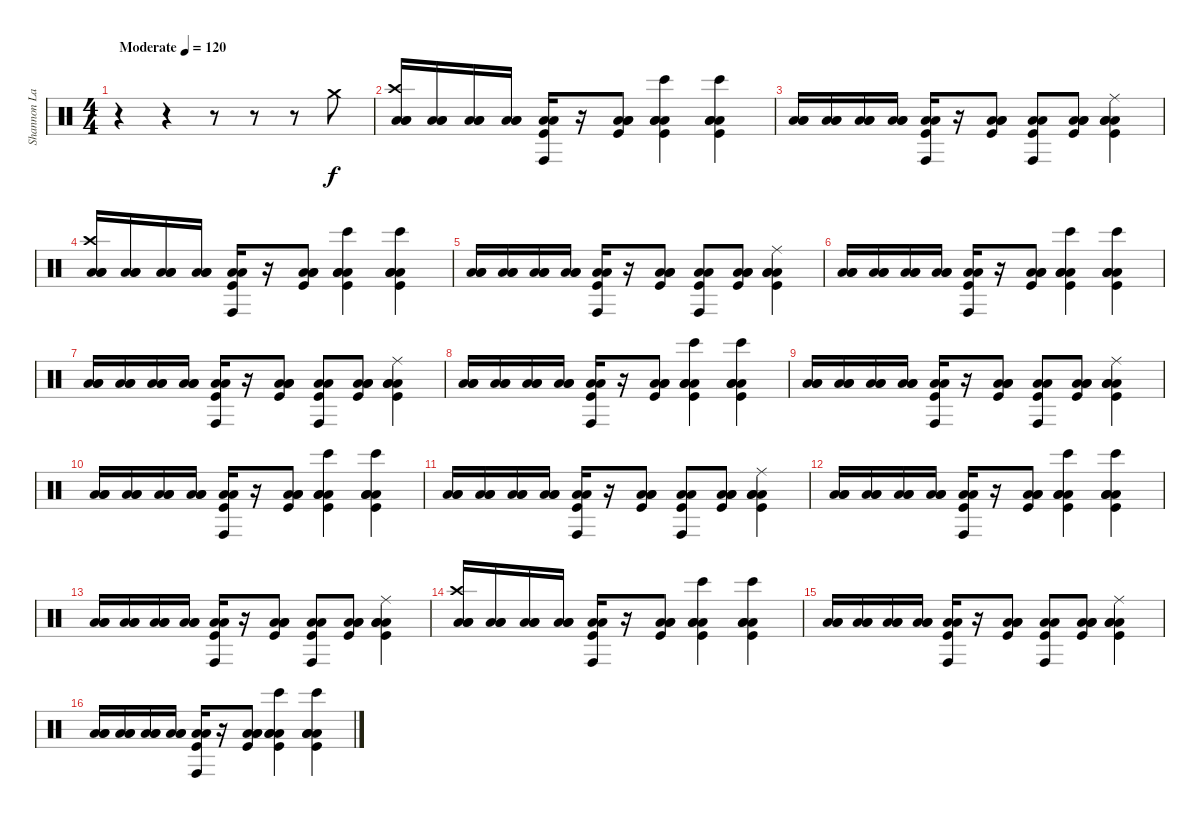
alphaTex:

\track ("Shannon Larkin" "Shannon La") {instrument percussion}
\staff {score}
\articulation defaults
\ts (4 4)
\tempo (120 "Moderate")
\clef neutral
\ks c
r.4{dy f} r.4 r.8 r.8 r.8 "Crash medium (hit)".8 |
("Low Floor Tom (hit)" "Low Floor Tom (hit)" "Crash high (hit)" "Low Tom (hit)").16 ("Low Floor Tom (hit)" "Low Floor Tom (hit)" "Low Tom (hit)").16 ("Low Floor Tom (hit)" "Low Floor Tom (hit)" "Low Tom (hit)").16 ("Low Floor Tom (hit)" "Low Floor Tom (hit)" "Low Tom (hit)").16 ("Low Floor Tom (hit)" "Low Floor Tom (hit)" "Conga high (hit)" "Kick (hit)").16 r.16 ("Low Floor Tom (hit)" "Low Floor Tom (hit)" "Low Tom (hit)" "Kick (hit)").8 ("Low Floor Tom (hit)" "Low Tom (hit)" "Low Floor Tom (hit)" "Bongo High (hit)" "Kick (hit)").4 ("Low Floor Tom (hit)" "Low Tom (hit)" "Low Floor Tom (hit)" "Bongo High (hit)" "Kick (hit)").4 |
("Low Floor Tom (hit)" "Low Floor Tom (hit)" "Low Tom (hit)").16 ("Low Floor Tom (hit)" "Low Floor Tom (hit)" "Low Tom (hit)").16 ("Low Floor Tom (hit)" "Low Floor Tom (hit)" "Low Tom (hit)").16 ("Low Floor Tom (hit)" "Low Floor Tom (hit)" "Low Tom (hit)").16 ("Low Floor Tom (hit)" "Low Floor Tom (hit)" "Conga high (hit)" "Kick (hit)").16 r.16 ("Low Floor Tom (hit)" "Low Floor Tom (hit)" "Low Tom (hit)" "Kick (hit)").8 ("Low Floor Tom (hit)" "Low Floor Tom (hit)" "Conga high (hit)" "Kick (hit)").8 ("Low Floor Tom (hit)" "Low Floor Tom (hit)" "Low Tom (hit)" "Kick (hit)").8 ("Low Floor Tom (hit)" "Low Tom (hit)" "Low Floor Tom (hit)" "Ride (middle)" "Kick (hit)").4 |
("Low Floor Tom (hit)" "Low Floor Tom (hit)" "Crash high (hit)" "Low Tom (hit)").16 ("Low Floor Tom (hit)" "Low Floor Tom (hit)" "Low Tom (hit)").16 ("Low Floor Tom (hit)" "Low Floor Tom (hit)" "Low Tom (hit)").16 ("Low Floor Tom (hit)" "Low Floor Tom (hit)" "Low Tom (hit)").16 ("Low Floor Tom (hit)" "Low Floor Tom (hit)" "Conga high (hit)" "Kick (hit)").16 r.16 ("Low Floor Tom (hit)" "Low Floor Tom (hit)" "Low Tom (hit)" "Kick (hit)").8 ("Low Floor Tom (hit)" "Low Tom (hit)" "Low Floor Tom (hit)" "Bongo High (hit)" "Kick (hit)").4 ("Low Floor Tom (hit)" "Low Tom (hit)" "Low Floor Tom (hit)" "Bongo High (hit)" "Kick (hit)").4 |
("Low Floor Tom (hit)" "Low Floor Tom (hit)" "Low Tom (hit)").16 ("Low Floor Tom (hit)" "Low Floor Tom (hit)" "Low Tom (hit)").16 ("Low Floor Tom (hit)" "Low Floor Tom (hit)" "Low Tom (hit)").16 ("Low Floor Tom (hit)" "Low Floor Tom (hit)" "Low Tom (hit)").16 ("Low Floor Tom (hit)" "Low Floor Tom (hit)" "Conga high (hit)" "Kick (hit)").16 r.16 ("Low Floor Tom (hit)" "Low Floor Tom (hit)" "Low Tom (hit)" "Kick (hit)").8 ("Low Floor Tom (hit)" "Low Floor Tom (hit)" "Conga high (hit)" "Kick (hit)").8 ("Low Floor Tom (hit)" "Low Floor Tom (hit)" "Low Tom (hit)" "Kick (hit)").8 ("Low Floor Tom (hit)" "Low Tom (hit)" "Low Floor Tom (hit)" "Ride (middle)" "Kick (hit)").4 |
("Low Floor Tom (hit)" "Low Floor Tom (hit)" "Low Tom (hit)").16 ("Low Floor Tom (hit)" "Low Floor Tom (hit)" "Low Tom (hit)").16 ("Low Floor Tom (hit)" "Low Floor Tom (hit)" "Low Tom (hit)").16 ("Low Floor Tom (hit)" "Low Floor Tom (hit)" "Low Tom (hit)").16 ("Low Floor Tom (hit)" "Low Floor Tom (hit)" "Conga high (hit)" "Kick (hit)").16 r.16 ("Low Floor Tom (hit)" "Low Floor Tom (hit)" "Low Tom (hit)" "Kick (hit)").8 ("Low Floor Tom (hit)" "Low Tom (hit)" "Low Floor Tom (hit)" "Bongo High (hit)" "Kick (hit)").4 ("Low Floor Tom (hit)" "Low Tom (hit)" "Low Floor Tom (hit)" "Bongo High (hit)" "Kick (hit)").4 |
("Low Floor Tom (hit)" "Low Floor Tom (hit)" "Low Tom (hit)").16 ("Low Floor Tom (hit)" "Low Floor Tom (hit)" "Low Tom (hit)").16 ("Low Floor Tom (hit)" "Low Floor Tom (hit)" "Low Tom (hit)").16 ("Low Floor Tom (hit)" "Low Floor Tom (hit)" "Low Tom (hit)").16 ("Low Floor Tom (hit)" "Low Floor Tom (hit)" "Conga high (hit)" "Kick (hit)").16 r.16 ("Low Floor Tom (hit)" "Low Floor Tom (hit)" "Low Tom (hit)" "Kick (hit)").8 ("Low Floor Tom (hit)" "Low Floor Tom (hit)" "Conga high (hit)" "Kick (hit)").8 ("Low Floor Tom (hit)" "Low Floor Tom (hit)" "Low Tom (hit)" "Kick (hit)").8 ("Low Floor Tom (hit)" "Low Tom (hit)" "Low Floor Tom (hit)" "Ride (middle)" "Kick (hit)").4 |
("Low Floor Tom (hit)" "Low Floor Tom (hit)" "Low Tom (hit)").16 ("Low Floor Tom (hit)" "Low Floor Tom (hit)" "Low Tom (hit)").16 ("Low Floor Tom (hit)" "Low Floor Tom (hit)" "Low Tom (hit)").16 ("Low Floor Tom (hit)" "Low Floor Tom (hit)" "Low Tom (hit)").16 ("Low Floor Tom (hit)" "Low Floor Tom (hit)" "Conga high (hit)" "Kick (hit)").16 r.16 ("Low Floor Tom (hit)" "Low Floor Tom (hit)" "Low Tom (hit)" "Kick (hit)").8 ("Low Floor Tom (hit)" "Low Tom (hit)" "Low Floor Tom (hit)" "Bongo High (hit)" "Kick (hit)").4 ("Low Floor Tom (hit)" "Low Tom (hit)" "Low Floor Tom (hit)" "Bongo High (hit)" "Kick (hit)").4 |
("Low Floor Tom (hit)" "Low Floor Tom (hit)" "Low Tom (hit)").16 ("Low Floor Tom (hit)" "Low Floor Tom (hit)" "Low Tom (hit)").16 ("Low Floor Tom (hit)" "Low Floor Tom (hit)" "Low Tom (hit)").16 ("Low Floor Tom (hit)" "Low Floor Tom (hit)" "Low Tom (hit)").16 ("Low Floor Tom (hit)" "Low Floor Tom (hit)" "Conga high (hit)" "Kick (hit)").16 r.16 ("Low Floor Tom (hit)" "Low Floor Tom (hit)" "Low Tom (hit)" "Kick (hit)").8 ("Low Floor Tom (hit)" "Low Floor Tom (hit)" "Conga high (hit)" "Kick (hit)").8 ("Low Floor Tom (hit)" "Low Floor Tom (hit)" "Low Tom (hit)" "Kick (hit)").8 ("Low Floor Tom (hit)" "Low Tom (hit)" "Low Floor Tom (hit)" "Ride (middle)" "Kick (hit)").4 |
("Low Floor Tom (hit)" "Low Floor Tom (hit)" "Low Tom (hit)").16 ("Low Floor Tom (hit)" "Low Floor Tom (hit)" "Low Tom (hit)").16 ("Low Floor Tom (hit)" "Low Floor Tom (hit)" "Low Tom (hit)").16 ("Low Floor Tom (hit)" "Low Floor Tom (hit)" "Low Tom (hit)").16 ("Low Floor Tom (hit)" "Low Floor Tom (hit)" "Conga high (hit)" "Kick (hit)").16 r.16 ("Low Floor Tom (hit)" "Low Floor Tom (hit)" "Low Tom (hit)" "Kick (hit)").8 ("Low Floor Tom (hit)" "Low Tom (hit)" "Low Floor Tom (hit)" "Bongo High (hit)" "Kick (hit)").4 ("Low Floor Tom (hit)" "Low Tom (hit)" "Low Floor Tom (hit)" "Bongo High (hit)" "Kick (hit)").4 |
("Low Floor Tom (hit)" "Low Floor Tom (hit)" "Low Tom (hit)").16 ("Low Floor Tom (hit)" "Low Floor Tom (hit)" "Low Tom (hit)").16 ("Low Floor Tom (hit)" "Low Floor Tom (hit)" "Low Tom (hit)").16 ("Low Floor Tom (hit)" "Low Floor Tom (hit)" "Low Tom (hit)").16 ("Low Floor Tom (hit)" "Low Floor Tom (hit)" "Conga high (hit)" "Kick (hit)").16 r.16 ("Low Floor Tom (hit)" "Low Floor Tom (hit)" "Low Tom (hit)" "Kick (hit)").8 ("Low Floor Tom (hit)" "Low Floor Tom (hit)" "Conga high (hit)" "Kick (hit)").8 ("Low Floor Tom (hit)" "Low Floor Tom (hit)" "Low Tom (hit)" "Kick (hit)").8 ("Low Floor Tom (hit)" "Low Tom (hit)" "Low Floor Tom (hit)" "Ride (middle)" "Kick (hit)").4 |
("Low Floor Tom (hit)" "Low Floor Tom (hit)" "Low Tom (hit)").16 ("Low Floor Tom (hit)" "Low Floor Tom (hit)" "Low Tom (hit)").16 ("Low Floor Tom (hit)" "Low Floor Tom (hit)" "Low Tom (hit)").16 ("Low Floor Tom (hit)" "Low Floor Tom (hit)" "Low Tom (hit)").16 ("Low Floor Tom (hit)" "Low Floor Tom (hit)" "Conga high (hit)" "Kick (hit)").16 r.16 ("Low Floor Tom (hit)" "Low Floor Tom (hit)" "Low Tom (hit)" "Kick (hit)").8 ("Low Floor Tom (hit)" "Low Tom (hit)" "Low Floor Tom (hit)" "Bongo High (hit)" "Kick (hit)").4 ("Low Floor Tom (hit)" "Low Tom (hit)" "Low Floor Tom (hit)" "Bongo High (hit)" "Kick (hit)").4 |
("Low Floor Tom (hit)" "Low Floor Tom (hit)" "Low Tom (hit)").16 ("Low Floor Tom (hit)" "Low Floor Tom (hit)" "Low Tom (hit)").16 ("Low Floor Tom (hit)" "Low Floor Tom (hit)" "Low Tom (hit)").16 ("Low Floor Tom (hit)" "Low Floor Tom (hit)" "Low Tom (hit)").16 ("Low Floor Tom (hit)" "Low Floor Tom (hit)" "Conga high (hit)" "Kick (hit)").16 r.16 ("Low Floor Tom (hit)" "Low Floor Tom (hit)" "Low Tom (hit)" "Kick (hit)").8 ("Low Floor Tom (hit)" "Low Floor Tom (hit)" "Conga high (hit)" "Kick (hit)").8 ("Low Floor Tom (hit)" "Low Floor Tom (hit)" "Low Tom (hit)" "Kick (hit)").8 ("Low Floor Tom (hit)" "Low Tom (hit)" "Low Floor Tom (hit)" "Ride (middle)" "Kick (hit)").4 |
("Low Floor Tom (hit)" "Low Floor Tom (hit)" "Crash high (hit)" "Low Tom (hit)").16 ("Low Floor Tom (hit)" "Low Floor Tom (hit)" "Low Tom (hit)").16 ("Low Floor Tom (hit)" "Low Floor Tom (hit)" "Low Tom (hit)").16 ("Low Floor Tom (hit)" "Low Floor Tom (hit)" "Low Tom (hit)").16 ("Low Floor Tom (hit)" "Low Floor Tom (hit)" "Conga high (hit)" "Kick (hit)").16 r.16 ("Low Floor Tom (hit)" "Low Floor Tom (hit)" "Low Tom (hit)" "Kick (hit)").8 ("Low Floor Tom (hit)" "Low Tom (hit)" "Low Floor Tom (hit)" "Bongo High (hit)" "Kick (hit)").4 ("Low Floor Tom (hit)" "Low Tom (hit)" "Low Floor Tom (hit)" "Bongo High (hit)" "Kick (hit)").4 |
("Low Floor Tom (hit)" "Low Floor Tom (hit)" "Low Tom (hit)").16 ("Low Floor Tom (hit)" "Low Floor Tom (hit)" "Low Tom (hit)").16 ("Low Floor Tom (hit)" "Low Floor Tom (hit)" "Low Tom (hit)").16 ("Low Floor Tom (hit)" "Low Floor Tom (hit)" "Low Tom (hit)").16 ("Low Floor Tom (hit)" "Low Floor Tom (hit)" "Conga high (hit)" "Kick (hit)").16 r.16 ("Low Floor Tom (hit)" "Low Floor Tom (hit)" "Low Tom (hit)" "Kick (hit)").8 ("Low Floor Tom (hit)" "Low Floor Tom (hit)" "Conga high (hit)" "Kick (hit)").8 ("Low Floor Tom (hit)" "Low Floor Tom (hit)" "Low Tom (hit)" "Kick (hit)").8 ("Low Floor Tom (hit)" "Low Tom (hit)" "Low Floor Tom (hit)" "Ride (middle)" "Kick (hit)").4 |
("Low Floor Tom (hit)" "Low Floor Tom (hit)" "Low Tom (hit)").16 ("Low Floor Tom (hit)" "Low Floor Tom (hit)" "Low Tom (hit)").16 ("Low Floor Tom (hit)" "Low Floor Tom (hit)" "Low Tom (hit)").16 ("Low Floor Tom (hit)" "Low Floor Tom (hit)" "Low Tom (hit)").16 ("Low Floor Tom (hit)" "Low Floor Tom (hit)" "Conga high (hit)" "Kick (hit)").16 r.16 ("Low Floor Tom (hit)" "Low Floor Tom (hit)" "Low Tom (hit)" "Kick (hit)").8 ("Low Floor Tom (hit)" "Low Tom (hit)" "Low Floor Tom (hit)" "Bongo High (hit)" "Kick (hit)").4 ("Low Floor Tom (hit)" "Low Tom (hit)" "Low Floor Tom (hit)" "Bongo High (hit)" "Kick (hit)").4
